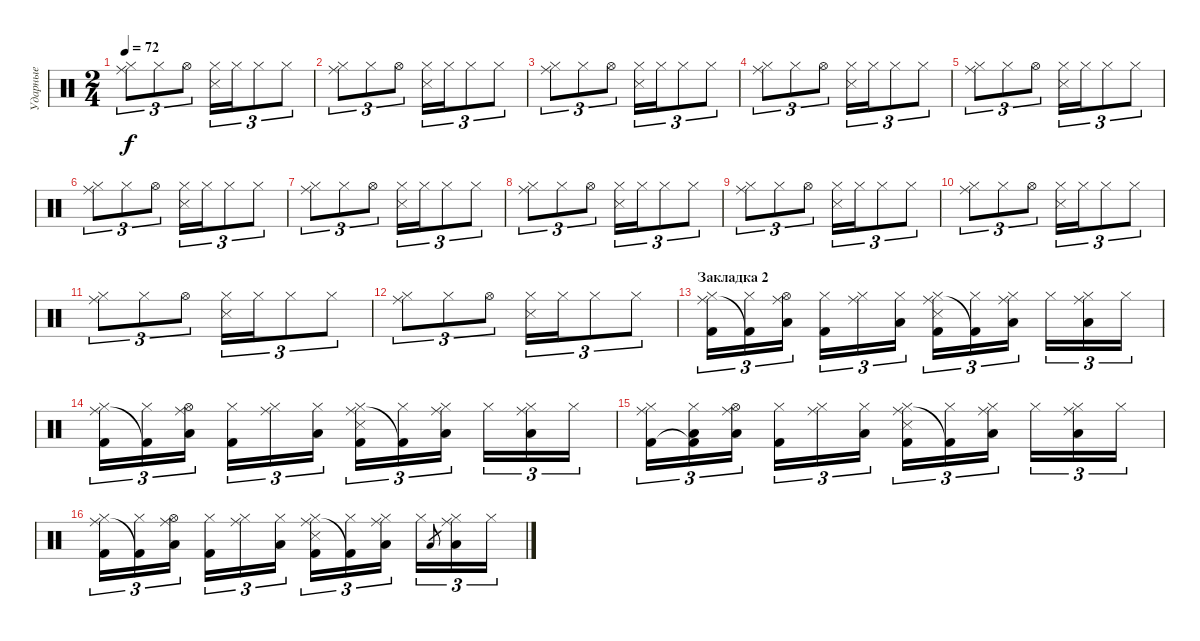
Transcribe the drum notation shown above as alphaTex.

\track ("Ударные" "Ударные") {instrument percussion}
\staff {score}
\articulation defaults
\ts (2 4)
\tempo 72
\clef neutral
\ks c
("Hi-Hat (closed)" "Ride (middle)").8{tu (3 2) dy f} "Hi-Hat (closed)".8{tu (3 2)} "Hi-Hat (open)".8{tu (3 2)} ("Hi-Hat (closed)" "Snare (side stick) 3").16{tu (3 2)} "Hi-Hat (closed)".16{tu (3 2)} "Hi-Hat (closed)".8{tu (3 2)} "Hi-Hat (closed)".8{tu (3 2)} |
("Hi-Hat (closed)" "Ride (middle)").8{tu (3 2)} "Hi-Hat (closed)".8{tu (3 2)} "Hi-Hat (open)".8{tu (3 2)} ("Hi-Hat (closed)" "Snare (side stick) 3").16{tu (3 2)} "Hi-Hat (closed)".16{tu (3 2)} "Hi-Hat (closed)".8{tu (3 2)} "Hi-Hat (closed)".8{tu (3 2)} |
("Hi-Hat (closed)" "Ride (middle)").8{tu (3 2)} "Hi-Hat (closed)".8{tu (3 2)} "Hi-Hat (open)".8{tu (3 2)} ("Hi-Hat (closed)" "Snare (side stick) 3").16{tu (3 2)} "Hi-Hat (closed)".16{tu (3 2)} "Hi-Hat (closed)".8{tu (3 2)} "Hi-Hat (closed)".8{tu (3 2)} |
("Hi-Hat (closed)" "Ride (middle)").8{tu (3 2)} "Hi-Hat (closed)".8{tu (3 2)} "Hi-Hat (open)".8{tu (3 2)} ("Hi-Hat (closed)" "Snare (side stick) 3").16{tu (3 2)} "Hi-Hat (closed)".16{tu (3 2)} "Hi-Hat (closed)".8{tu (3 2)} "Hi-Hat (closed)".8{tu (3 2)} |
("Hi-Hat (closed)" "Ride (middle)").8{tu (3 2)} "Hi-Hat (closed)".8{tu (3 2)} "Hi-Hat (open)".8{tu (3 2)} ("Hi-Hat (closed)" "Snare (side stick) 3").16{tu (3 2)} "Hi-Hat (closed)".16{tu (3 2)} "Hi-Hat (closed)".8{tu (3 2)} "Hi-Hat (closed)".8{tu (3 2)} |
("Hi-Hat (closed)" "Ride (middle)").8{tu (3 2)} "Hi-Hat (closed)".8{tu (3 2)} "Hi-Hat (open)".8{tu (3 2)} ("Hi-Hat (closed)" "Snare (side stick) 3").16{tu (3 2)} "Hi-Hat (closed)".16{tu (3 2)} "Hi-Hat (closed)".8{tu (3 2)} "Hi-Hat (closed)".8{tu (3 2)} |
("Hi-Hat (closed)" "Ride (middle)").8{tu (3 2)} "Hi-Hat (closed)".8{tu (3 2)} "Hi-Hat (open)".8{tu (3 2)} ("Hi-Hat (closed)" "Snare (side stick) 3").16{tu (3 2)} "Hi-Hat (closed)".16{tu (3 2)} "Hi-Hat (closed)".8{tu (3 2)} "Hi-Hat (closed)".8{tu (3 2)} |
("Hi-Hat (closed)" "Ride (middle)").8{tu (3 2)} "Hi-Hat (closed)".8{tu (3 2)} "Hi-Hat (open)".8{tu (3 2)} ("Hi-Hat (closed)" "Snare (side stick) 3").16{tu (3 2)} "Hi-Hat (closed)".16{tu (3 2)} "Hi-Hat (closed)".8{tu (3 2)} "Hi-Hat (closed)".8{tu (3 2)} |
("Hi-Hat (closed)" "Ride (middle)").8{tu (3 2)} "Hi-Hat (closed)".8{tu (3 2)} "Hi-Hat (open)".8{tu (3 2)} ("Hi-Hat (closed)" "Snare (side stick) 3").16{tu (3 2)} "Hi-Hat (closed)".16{tu (3 2)} "Hi-Hat (closed)".8{tu (3 2)} "Hi-Hat (closed)".8{tu (3 2)} |
("Hi-Hat (closed)" "Ride (middle)").8{tu (3 2)} "Hi-Hat (closed)".8{tu (3 2)} "Hi-Hat (open)".8{tu (3 2)} ("Hi-Hat (closed)" "Snare (side stick) 3").16{tu (3 2)} "Hi-Hat (closed)".16{tu (3 2)} "Hi-Hat (closed)".8{tu (3 2)} "Hi-Hat (closed)".8{tu (3 2)} |
("Hi-Hat (closed)" "Ride (middle)").8{tu (3 2)} "Hi-Hat (closed)".8{tu (3 2)} "Hi-Hat (open)".8{tu (3 2)} ("Hi-Hat (closed)" "Snare (side stick) 3").16{tu (3 2)} "Hi-Hat (closed)".16{tu (3 2)} "Hi-Hat (closed)".8{tu (3 2)} "Hi-Hat (closed)".8{tu (3 2)} |
("Hi-Hat (closed)" "Ride (middle)").8{tu (3 2)} "Hi-Hat (closed)".8{tu (3 2)} "Hi-Hat (open)".8{tu (3 2)} ("Hi-Hat (closed)" "Snare (side stick) 3").16{tu (3 2)} "Hi-Hat (closed)".16{tu (3 2)} "Hi-Hat (closed)".8{tu (3 2)} "Hi-Hat (closed)".8{tu (3 2)} |
\section ("" "Закладка 2")
("Hi-Hat (closed)" "Ride (middle)" "Kick (hit) 2").16{tu (3 2)} ("Hi-Hat (closed)" "Kick (hit) 2"{t}).16{tu (3 2)} ("Hi-Hat (open)" "Ride (middle)" "Low Tom (hit)").16{tu (3 2)} ("Hi-Hat (closed)" "Kick (hit) 2").16{tu (3 2)} ("Hi-Hat (closed)" "Ride (middle)").16{tu (3 2)} ("Hi-Hat (closed)" "Low Tom (hit)").16{tu (3 2)} ("Hi-Hat (closed)" "Ride (middle)" "Snare (side stick) 3" "Kick (hit) 2").16{tu (3 2)} ("Hi-Hat (closed)" "Kick (hit) 2"{t}).16{tu (3 2)} ("Hi-Hat (closed)" "Ride (middle)" "Low Tom (hit)").16{tu (3 2)} "Hi-Hat (closed)".16{tu (3 2)} ("Hi-Hat (closed)" "Ride (middle)" "Low Tom (hit)").16{tu (3 2)} "Hi-Hat (closed)".16{tu (3 2)} |
("Hi-Hat (closed)" "Ride (middle)" "Kick (hit) 2").16{tu (3 2)} ("Hi-Hat (closed)" "Kick (hit) 2"{t}).16{tu (3 2)} ("Hi-Hat (open)" "Ride (middle)" "Low Tom (hit)").16{tu (3 2)} ("Hi-Hat (closed)" "Kick (hit) 2").16{tu (3 2)} ("Hi-Hat (closed)" "Ride (middle)").16{tu (3 2)} ("Hi-Hat (closed)" "Low Tom (hit)").16{tu (3 2)} ("Hi-Hat (closed)" "Ride (middle)" "Snare (side stick) 3" "Kick (hit) 2").16{tu (3 2)} ("Hi-Hat (closed)" "Kick (hit) 2"{t}).16{tu (3 2)} ("Hi-Hat (closed)" "Ride (middle)" "Low Tom (hit)").16{tu (3 2)} "Hi-Hat (closed)".16{tu (3 2)} ("Hi-Hat (closed)" "Ride (middle)" "Low Tom (hit)").16{tu (3 2)} "Hi-Hat (closed)".16{tu (3 2)} |
("Hi-Hat (closed)" "Ride (middle)" "Kick (hit) 2").16{tu (3 2)} ("Hi-Hat (closed)" "Low Tom (hit)" "Kick (hit) 2"{t}).16{tu (3 2)} ("Hi-Hat (open)" "Ride (middle)" "Low Tom (hit)").16{tu (3 2)} ("Hi-Hat (closed)" "Kick (hit) 2").16{tu (3 2)} ("Hi-Hat (closed)" "Ride (middle)").16{tu (3 2)} ("Hi-Hat (closed)" "Low Tom (hit)").16{tu (3 2)} ("Hi-Hat (closed)" "Ride (middle)" "Snare (side stick) 3" "Kick (hit) 2").16{tu (3 2)} ("Hi-Hat (closed)" "Kick (hit) 2"{t}).16{tu (3 2)} ("Hi-Hat (closed)" "Ride (middle)" "Low Tom (hit)").16{tu (3 2)} "Hi-Hat (closed)".16{tu (3 2)} ("Hi-Hat (closed)" "Ride (middle)" "Low Tom (hit)").16{tu (3 2)} "Hi-Hat (closed)".16{tu (3 2)} |
("Hi-Hat (closed)" "Ride (middle)" "Kick (hit) 2").16{tu (3 2)} ("Hi-Hat (closed)" "Kick (hit) 2"{t}).16{tu (3 2)} ("Hi-Hat (open)" "Ride (middle)" "Low Tom (hit)").16{tu (3 2)} ("Hi-Hat (closed)" "Kick (hit) 2").16{tu (3 2)} ("Hi-Hat (closed)" "Ride (middle)").16{tu (3 2)} ("Hi-Hat (closed)" "Low Tom (hit)").16{tu (3 2)} ("Hi-Hat (closed)" "Ride (middle)" "Snare (side stick) 3" "Kick (hit) 2").16{tu (3 2)} ("Hi-Hat (closed)" "Kick (hit) 2"{t}).16{tu (3 2)} ("Hi-Hat (closed)" "Ride (middle)" "Low Tom (hit)").16{tu (3 2)} "Hi-Hat (closed)".16{tu (3 2)} "Low Tom (hit)".8{gr} ("Hi-Hat (closed)" "Ride (middle)" "Low Tom (hit)"{tr (24 16)}).16{tu (3 2)} "Hi-Hat (closed)".16{tu (3 2)}
